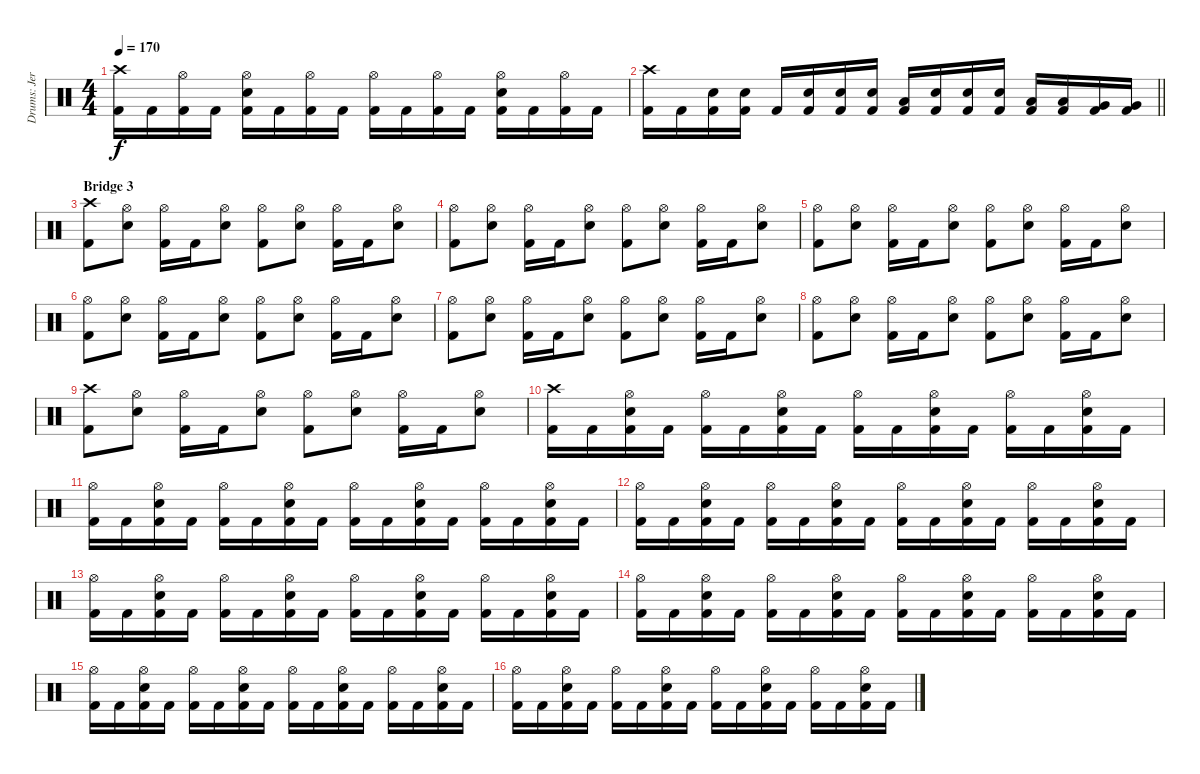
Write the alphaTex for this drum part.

\track ("Drums: Jere Luokkamäki" "Drums: Jer") {instrument percussion}
\staff {score}
\articulation defaults
\ts (4 4)
\tempo 170
\clef neutral
\ks aminor
("Crash high (hit)" "Kick (hit) 2").16{dy f} "Kick (hit) 2".16 ("Hi-Hat (open)" "Kick (hit) 2").16 "Kick (hit) 2".16 ("Hi-Hat (open)" "Electric Snare (hit)" "Kick (hit) 2").16 "Kick (hit) 2".16 ("Hi-Hat (open)" "Kick (hit) 2").16 "Kick (hit) 2".16 ("Hi-Hat (open)" "Kick (hit) 2").16 "Kick (hit) 2".16 ("Hi-Hat (open)" "Kick (hit) 2").16 "Kick (hit) 2".16 ("Hi-Hat (open)" "Electric Snare (hit)" "Kick (hit) 2").16 "Kick (hit) 2".16 ("Hi-Hat (open)" "Kick (hit) 2").16 "Kick (hit) 2".16 |
\barLineRight lightlight
("Crash high (hit)" "Kick (hit) 2").16 "Kick (hit) 2".16 ("Electric Snare (hit)" "Kick (hit) 2").16 ("Electric Snare (hit)" "Kick (hit) 2").16 "Kick (hit) 2".16 ("Electric Snare (hit)" "Kick (hit) 2").16 ("Electric Snare (hit)" "Kick (hit) 2").16 ("Electric Snare (hit)" "Kick (hit) 2").16 ("Low Tom (hit)" "Kick (hit) 2").16 ("Electric Snare (hit)" "Kick (hit) 2").16 ("Electric Snare (hit)" "Kick (hit) 2").16 ("Electric Snare (hit)" "Kick (hit) 2").16 ("Low Tom (hit)" "Kick (hit) 2").16 ("Low Tom (hit)" "Kick (hit) 2").16 ("Very Low Tom (hit)" "Kick (hit) 2").16 ("Very Low Tom (hit)" "Kick (hit) 2").16 |
\section ("" "Bridge 3")
("Crash high (hit)" "Kick (hit) 2").8 ("Hi-Hat (open)" "Electric Snare (hit)").8 ("Hi-Hat (open)" "Kick (hit) 2").16 "Kick (hit) 2".16 ("Hi-Hat (open)" "Electric Snare (hit)").8 ("Hi-Hat (open)" "Kick (hit) 2").8 ("Hi-Hat (open)" "Electric Snare (hit)").8 ("Hi-Hat (open)" "Kick (hit) 2").16 "Kick (hit) 2".16 ("Hi-Hat (open)" "Electric Snare (hit)").8 |
("Hi-Hat (open)" "Kick (hit) 2").8 ("Hi-Hat (open)" "Electric Snare (hit)").8 ("Hi-Hat (open)" "Kick (hit) 2").16 "Kick (hit) 2".16 ("Hi-Hat (open)" "Electric Snare (hit)").8 ("Hi-Hat (open)" "Kick (hit) 2").8 ("Hi-Hat (open)" "Electric Snare (hit)").8 ("Hi-Hat (open)" "Kick (hit) 2").16 "Kick (hit) 2".16 ("Hi-Hat (open)" "Electric Snare (hit)").8 |
("Hi-Hat (open)" "Kick (hit) 2").8 ("Hi-Hat (open)" "Electric Snare (hit)").8 ("Hi-Hat (open)" "Kick (hit) 2").16 "Kick (hit) 2".16 ("Hi-Hat (open)" "Electric Snare (hit)").8 ("Hi-Hat (open)" "Kick (hit) 2").8 ("Hi-Hat (open)" "Electric Snare (hit)").8 ("Hi-Hat (open)" "Kick (hit) 2").16 "Kick (hit) 2".16 ("Hi-Hat (open)" "Electric Snare (hit)").8 |
("Hi-Hat (open)" "Kick (hit) 2").8 ("Hi-Hat (open)" "Electric Snare (hit)").8 ("Hi-Hat (open)" "Kick (hit) 2").16 "Kick (hit) 2".16 ("Hi-Hat (open)" "Electric Snare (hit)").8 ("Hi-Hat (open)" "Kick (hit) 2").8 ("Hi-Hat (open)" "Electric Snare (hit)").8 ("Hi-Hat (open)" "Kick (hit) 2").16 "Kick (hit) 2".16 ("Hi-Hat (open)" "Electric Snare (hit)").8 |
("Hi-Hat (open)" "Kick (hit) 2").8 ("Hi-Hat (open)" "Electric Snare (hit)").8 ("Hi-Hat (open)" "Kick (hit) 2").16 "Kick (hit) 2".16 ("Hi-Hat (open)" "Electric Snare (hit)").8 ("Hi-Hat (open)" "Kick (hit) 2").8 ("Hi-Hat (open)" "Electric Snare (hit)").8 ("Hi-Hat (open)" "Kick (hit) 2").16 "Kick (hit) 2".16 ("Hi-Hat (open)" "Electric Snare (hit)").8 |
("Hi-Hat (open)" "Kick (hit) 2").8 ("Hi-Hat (open)" "Electric Snare (hit)").8 ("Hi-Hat (open)" "Kick (hit) 2").16 "Kick (hit) 2".16 ("Hi-Hat (open)" "Electric Snare (hit)").8 ("Hi-Hat (open)" "Kick (hit) 2").8 ("Hi-Hat (open)" "Electric Snare (hit)").8 ("Hi-Hat (open)" "Kick (hit) 2").16 "Kick (hit) 2".16 ("Hi-Hat (open)" "Electric Snare (hit)").8 |
("Crash high (hit)" "Kick (hit) 2").8 ("Hi-Hat (open)" "Electric Snare (hit)").8 ("Hi-Hat (open)" "Kick (hit) 2").16 "Kick (hit) 2".16 ("Hi-Hat (open)" "Electric Snare (hit)").8 ("Hi-Hat (open)" "Kick (hit) 2").8 ("Hi-Hat (open)" "Electric Snare (hit)").8 ("Hi-Hat (open)" "Kick (hit) 2").16 "Kick (hit) 2".16 ("Hi-Hat (open)" "Electric Snare (hit)").8 |
("Crash high (hit)" "Kick (hit) 2").16 "Kick (hit) 2".16 ("Hi-Hat (open)" "Electric Snare (hit)" "Kick (hit) 2").16 "Kick (hit) 2".16 ("Hi-Hat (open)" "Kick (hit) 2").16 "Kick (hit) 2".16 ("Hi-Hat (open)" "Electric Snare (hit)" "Kick (hit) 2").16 "Kick (hit) 2".16 ("Hi-Hat (open)" "Kick (hit) 2").16 "Kick (hit) 2".16 ("Hi-Hat (open)" "Electric Snare (hit)" "Kick (hit) 2").16 "Kick (hit) 2".16 ("Hi-Hat (open)" "Kick (hit) 2").16 "Kick (hit) 2".16 ("Hi-Hat (open)" "Electric Snare (hit)" "Kick (hit) 2").16 "Kick (hit) 2".16 |
("Hi-Hat (open)" "Kick (hit) 2").16 "Kick (hit) 2".16 ("Hi-Hat (open)" "Electric Snare (hit)" "Kick (hit) 2").16 "Kick (hit) 2".16 ("Hi-Hat (open)" "Kick (hit) 2").16 "Kick (hit) 2".16 ("Hi-Hat (open)" "Electric Snare (hit)" "Kick (hit) 2").16 "Kick (hit) 2".16 ("Hi-Hat (open)" "Kick (hit) 2").16 "Kick (hit) 2".16 ("Hi-Hat (open)" "Electric Snare (hit)" "Kick (hit) 2").16 "Kick (hit) 2".16 ("Hi-Hat (open)" "Kick (hit) 2").16 "Kick (hit) 2".16 ("Hi-Hat (open)" "Electric Snare (hit)" "Kick (hit) 2").16 "Kick (hit) 2".16 |
("Hi-Hat (open)" "Kick (hit) 2").16 "Kick (hit) 2".16 ("Hi-Hat (open)" "Electric Snare (hit)" "Kick (hit) 2").16 "Kick (hit) 2".16 ("Hi-Hat (open)" "Kick (hit) 2").16 "Kick (hit) 2".16 ("Hi-Hat (open)" "Electric Snare (hit)" "Kick (hit) 2").16 "Kick (hit) 2".16 ("Hi-Hat (open)" "Kick (hit) 2").16 "Kick (hit) 2".16 ("Hi-Hat (open)" "Electric Snare (hit)" "Kick (hit) 2").16 "Kick (hit) 2".16 ("Hi-Hat (open)" "Kick (hit) 2").16 "Kick (hit) 2".16 ("Hi-Hat (open)" "Electric Snare (hit)" "Kick (hit) 2").16 "Kick (hit) 2".16 |
("Hi-Hat (open)" "Kick (hit) 2").16 "Kick (hit) 2".16 ("Hi-Hat (open)" "Electric Snare (hit)" "Kick (hit) 2").16 "Kick (hit) 2".16 ("Hi-Hat (open)" "Kick (hit) 2").16 "Kick (hit) 2".16 ("Hi-Hat (open)" "Electric Snare (hit)" "Kick (hit) 2").16 "Kick (hit) 2".16 ("Hi-Hat (open)" "Kick (hit) 2").16 "Kick (hit) 2".16 ("Hi-Hat (open)" "Electric Snare (hit)" "Kick (hit) 2").16 "Kick (hit) 2".16 ("Hi-Hat (open)" "Kick (hit) 2").16 "Kick (hit) 2".16 ("Hi-Hat (open)" "Electric Snare (hit)" "Kick (hit) 2").16 "Kick (hit) 2".16 |
("Hi-Hat (open)" "Kick (hit) 2").16 "Kick (hit) 2".16 ("Hi-Hat (open)" "Electric Snare (hit)" "Kick (hit) 2").16 "Kick (hit) 2".16 ("Hi-Hat (open)" "Kick (hit) 2").16 "Kick (hit) 2".16 ("Hi-Hat (open)" "Electric Snare (hit)" "Kick (hit) 2").16 "Kick (hit) 2".16 ("Hi-Hat (open)" "Kick (hit) 2").16 "Kick (hit) 2".16 ("Hi-Hat (open)" "Electric Snare (hit)" "Kick (hit) 2").16 "Kick (hit) 2".16 ("Hi-Hat (open)" "Kick (hit) 2").16 "Kick (hit) 2".16 ("Hi-Hat (open)" "Electric Snare (hit)" "Kick (hit) 2").16 "Kick (hit) 2".16 |
("Hi-Hat (open)" "Kick (hit) 2").16 "Kick (hit) 2".16 ("Hi-Hat (open)" "Electric Snare (hit)" "Kick (hit) 2").16 "Kick (hit) 2".16 ("Hi-Hat (open)" "Kick (hit) 2").16 "Kick (hit) 2".16 ("Hi-Hat (open)" "Electric Snare (hit)" "Kick (hit) 2").16 "Kick (hit) 2".16 ("Hi-Hat (open)" "Kick (hit) 2").16 "Kick (hit) 2".16 ("Hi-Hat (open)" "Electric Snare (hit)" "Kick (hit) 2").16 "Kick (hit) 2".16 ("Hi-Hat (open)" "Kick (hit) 2").16 "Kick (hit) 2".16 ("Hi-Hat (open)" "Electric Snare (hit)" "Kick (hit) 2").16 "Kick (hit) 2".16 |
("Hi-Hat (open)" "Kick (hit) 2").16 "Kick (hit) 2".16 ("Hi-Hat (open)" "Electric Snare (hit)" "Kick (hit) 2").16 "Kick (hit) 2".16 ("Hi-Hat (open)" "Kick (hit) 2").16 "Kick (hit) 2".16 ("Hi-Hat (open)" "Electric Snare (hit)" "Kick (hit) 2").16 "Kick (hit) 2".16 ("Hi-Hat (open)" "Kick (hit) 2").16 "Kick (hit) 2".16 ("Hi-Hat (open)" "Electric Snare (hit)" "Kick (hit) 2").16 "Kick (hit) 2".16 ("Hi-Hat (open)" "Kick (hit) 2").16 "Kick (hit) 2".16 ("Hi-Hat (open)" "Electric Snare (hit)" "Kick (hit) 2").16 "Kick (hit) 2".16
